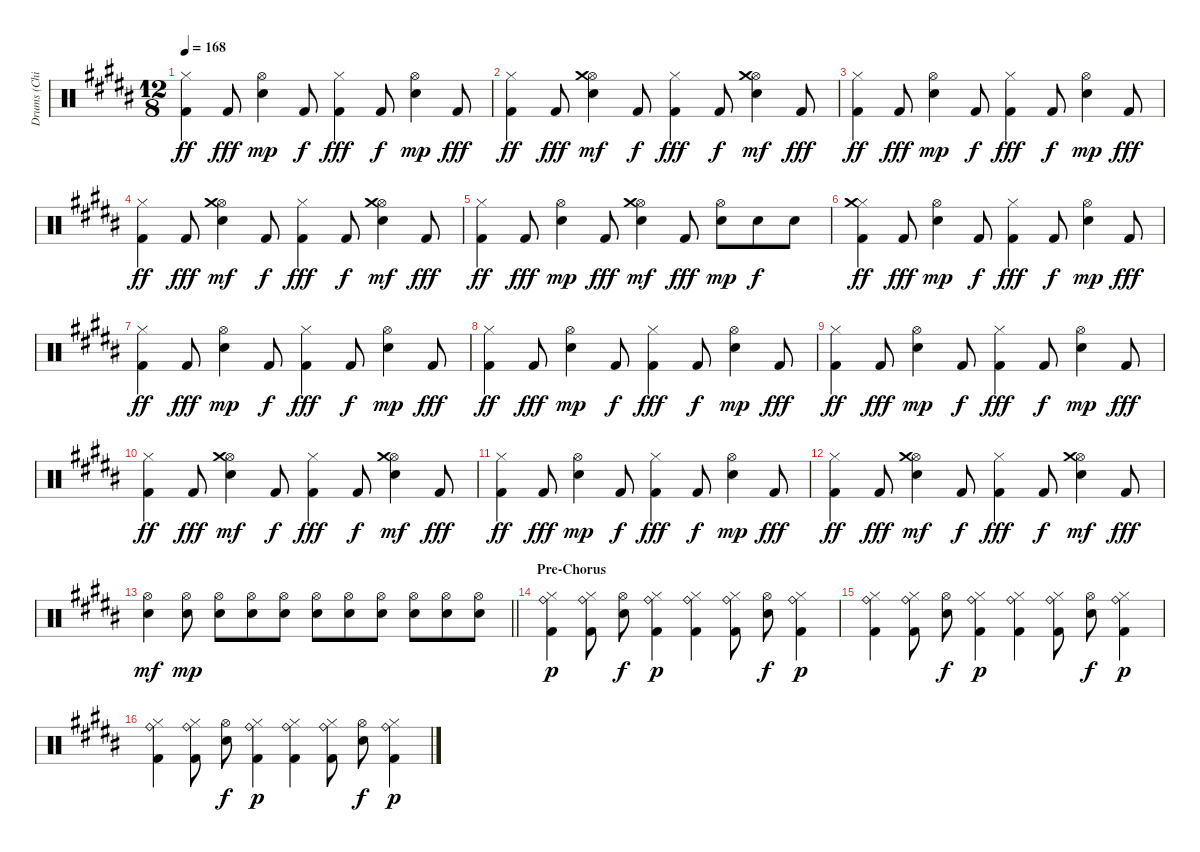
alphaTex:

\track ("Drums (Chinyakov)" "Drums (Chi") {instrument percussion}
\staff {score}
\articulation defaults
\ts (12 8)
\tempo 168
\clef neutral
\ks b
("Kick (hit) 2" "Hi-Hat (closed)").4{dy ff} "Kick (hit) 2".8{dy fff} ("Electric Snare (hit)" "Hi-Hat (open)").4{dy mp} "Kick (hit) 2".8{dy f} ("Kick (hit) 2" "Hi-Hat (closed)").4{dy fff} "Kick (hit) 2".8{dy f} ("Electric Snare (hit)" "Hi-Hat (open)").4{dy mp} "Kick (hit) 2".8{dy fff} |
("Kick (hit) 2" "Hi-Hat (closed)").4{dy ff} "Kick (hit) 2".8{dy fff} ("Electric Snare (hit)" "Hi-Hat (open)" "Crash medium (hit)").4{dy mf} "Kick (hit) 2".8{dy f} ("Kick (hit) 2" "Hi-Hat (closed)").4{dy fff} "Kick (hit) 2".8{dy f} ("Electric Snare (hit)" "Hi-Hat (open)" "Crash medium (hit)").4{dy mf} "Kick (hit) 2".8{dy fff} |
("Kick (hit) 2" "Hi-Hat (closed)").4{dy ff} "Kick (hit) 2".8{dy fff} ("Electric Snare (hit)" "Hi-Hat (open)").4{dy mp} "Kick (hit) 2".8{dy f} ("Kick (hit) 2" "Hi-Hat (closed)").4{dy fff} "Kick (hit) 2".8{dy f} ("Electric Snare (hit)" "Hi-Hat (open)").4{dy mp} "Kick (hit) 2".8{dy fff} |
("Kick (hit) 2" "Hi-Hat (closed)").4{dy ff} "Kick (hit) 2".8{dy fff} ("Electric Snare (hit)" "Hi-Hat (open)" "Crash medium (hit)").4{dy mf} "Kick (hit) 2".8{dy f} ("Kick (hit) 2" "Hi-Hat (closed)").4{dy fff} "Kick (hit) 2".8{dy f} ("Electric Snare (hit)" "Hi-Hat (open)" "Crash medium (hit)").4{dy mf} "Kick (hit) 2".8{dy fff} |
("Kick (hit) 2" "Hi-Hat (closed)").4{dy ff} "Kick (hit) 2".8{dy fff} ("Electric Snare (hit)" "Hi-Hat (open)").4{dy mp} "Kick (hit) 2".8{dy fff} ("Electric Snare (hit)" "Hi-Hat (open)" "Crash medium (hit)").4{dy mf} "Kick (hit) 2".8{dy fff} ("Electric Snare (hit)" "Hi-Hat (open)").8{dy mp} "Electric Snare (hit)".8{dy f} "Electric Snare (hit)".8 |
("Kick (hit) 2" "Hi-Hat (closed)" "Crash medium (hit)").4{dy ff} "Kick (hit) 2".8{dy fff} ("Electric Snare (hit)" "Hi-Hat (open)").4{dy mp} "Kick (hit) 2".8{dy f} ("Kick (hit) 2" "Hi-Hat (closed)").4{dy fff} "Kick (hit) 2".8{dy f} ("Electric Snare (hit)" "Hi-Hat (open)").4{dy mp} "Kick (hit) 2".8{dy fff} |
("Kick (hit) 2" "Hi-Hat (closed)").4{dy ff} "Kick (hit) 2".8{dy fff} ("Electric Snare (hit)" "Hi-Hat (open)").4{dy mp} "Kick (hit) 2".8{dy f} ("Kick (hit) 2" "Hi-Hat (closed)").4{dy fff} "Kick (hit) 2".8{dy f} ("Electric Snare (hit)" "Hi-Hat (open)").4{dy mp} "Kick (hit) 2".8{dy fff} |
("Kick (hit) 2" "Hi-Hat (closed)").4{dy ff} "Kick (hit) 2".8{dy fff} ("Electric Snare (hit)" "Hi-Hat (open)").4{dy mp} "Kick (hit) 2".8{dy f} ("Kick (hit) 2" "Hi-Hat (closed)").4{dy fff} "Kick (hit) 2".8{dy f} ("Electric Snare (hit)" "Hi-Hat (open)").4{dy mp} "Kick (hit) 2".8{dy fff} |
("Kick (hit) 2" "Hi-Hat (closed)").4{dy ff} "Kick (hit) 2".8{dy fff} ("Electric Snare (hit)" "Hi-Hat (open)").4{dy mp} "Kick (hit) 2".8{dy f} ("Kick (hit) 2" "Hi-Hat (closed)").4{dy fff} "Kick (hit) 2".8{dy f} ("Electric Snare (hit)" "Hi-Hat (open)").4{dy mp} "Kick (hit) 2".8{dy fff} |
("Kick (hit) 2" "Hi-Hat (closed)").4{dy ff} "Kick (hit) 2".8{dy fff} ("Electric Snare (hit)" "Hi-Hat (open)" "Crash medium (hit)").4{dy mf} "Kick (hit) 2".8{dy f} ("Kick (hit) 2" "Hi-Hat (closed)").4{dy fff} "Kick (hit) 2".8{dy f} ("Electric Snare (hit)" "Hi-Hat (open)" "Crash medium (hit)").4{dy mf} "Kick (hit) 2".8{dy fff} |
("Kick (hit) 2" "Hi-Hat (closed)").4{dy ff} "Kick (hit) 2".8{dy fff} ("Electric Snare (hit)" "Hi-Hat (open)").4{dy mp} "Kick (hit) 2".8{dy f} ("Kick (hit) 2" "Hi-Hat (closed)").4{dy fff} "Kick (hit) 2".8{dy f} ("Electric Snare (hit)" "Hi-Hat (open)").4{dy mp} "Kick (hit) 2".8{dy fff} |
("Kick (hit) 2" "Hi-Hat (closed)").4{dy ff} "Kick (hit) 2".8{dy fff} ("Electric Snare (hit)" "Hi-Hat (open)" "Crash medium (hit)").4{dy mf} "Kick (hit) 2".8{dy f} ("Kick (hit) 2" "Hi-Hat (closed)").4{dy fff} "Kick (hit) 2".8{dy f} ("Electric Snare (hit)" "Hi-Hat (open)" "Crash medium (hit)").4{dy mf} "Kick (hit) 2".8{dy fff} |
\barLineRight lightlight
("Electric Snare (hit)" "Hi-Hat (open)").4{dy mf} ("Electric Snare (hit)" "Hi-Hat (open)").8{dy mp} ("Electric Snare (hit)" "Hi-Hat (open)").8 ("Electric Snare (hit)" "Hi-Hat (open)").8 ("Electric Snare (hit)" "Hi-Hat (open)").8 ("Electric Snare (hit)" "Hi-Hat (open)").8 ("Electric Snare (hit)" "Hi-Hat (open)").8 ("Electric Snare (hit)" "Hi-Hat (open)").8 ("Electric Snare (hit)" "Hi-Hat (open)").8 ("Electric Snare (hit)" "Hi-Hat (open)").8 ("Electric Snare (hit)" "Hi-Hat (open)").8 |
\section ("" "Pre-Chorus")
("Kick (hit) 2" "Hi-Hat (closed)" "Ride (bell)").4{dy p} ("Kick (hit) 2" "Hi-Hat (closed)" "Ride (bell)").8 ("Electric Snare (hit)" "Hi-Hat (open)").8{dy f} ("Kick (hit) 2" "Hi-Hat (closed)" "Ride (bell)").4{dy p} ("Kick (hit) 2" "Hi-Hat (closed)" "Ride (bell)").4 ("Kick (hit) 2" "Hi-Hat (closed)" "Ride (bell)").8 ("Electric Snare (hit)" "Hi-Hat (open)").8{dy f} ("Kick (hit) 2" "Hi-Hat (closed)" "Ride (bell)").4{dy p} |
("Kick (hit) 2" "Hi-Hat (closed)" "Ride (bell)").4 ("Kick (hit) 2" "Hi-Hat (closed)" "Ride (bell)").8 ("Electric Snare (hit)" "Hi-Hat (open)").8{dy f} ("Kick (hit) 2" "Hi-Hat (closed)" "Ride (bell)").4{dy p} ("Kick (hit) 2" "Hi-Hat (closed)" "Ride (bell)").4 ("Kick (hit) 2" "Hi-Hat (closed)" "Ride (bell)").8 ("Electric Snare (hit)" "Hi-Hat (open)").8{dy f} ("Kick (hit) 2" "Hi-Hat (closed)" "Ride (bell)").4{dy p} |
("Kick (hit) 2" "Hi-Hat (closed)" "Ride (bell)").4 ("Kick (hit) 2" "Hi-Hat (closed)" "Ride (bell)").8 ("Electric Snare (hit)" "Hi-Hat (open)").8{dy f} ("Kick (hit) 2" "Hi-Hat (closed)" "Ride (bell)").4{dy p} ("Kick (hit) 2" "Hi-Hat (closed)" "Ride (bell)").4 ("Kick (hit) 2" "Hi-Hat (closed)" "Ride (bell)").8 ("Electric Snare (hit)" "Hi-Hat (open)").8{dy f} ("Kick (hit) 2" "Hi-Hat (closed)" "Ride (bell)").4{dy p}
